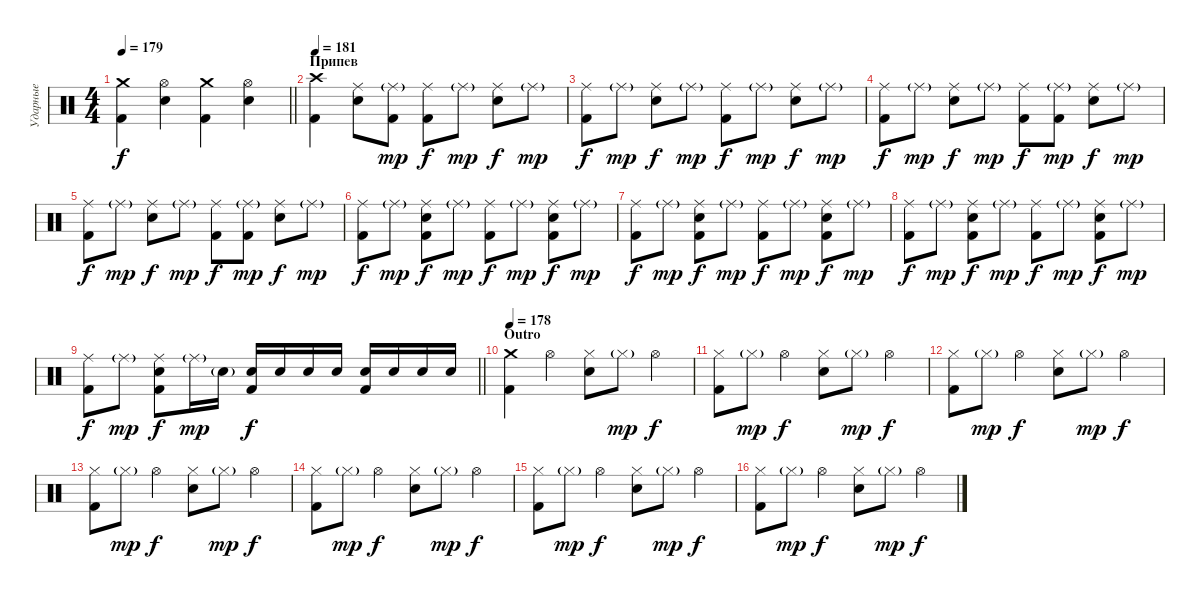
\track ("Ударные" "Ударные") {instrument percussion}
\staff {score}
\articulation defaults
\ts (4 4)
\tempo 179
\clef neutral
\barLineRight lightlight
\ks c
("Crash medium (hit)" "Kick (hit) 2").4{dy f} ("Hi-Hat (open)" "Electric Snare (hit)").4 ("Crash medium (hit)" "Kick (hit) 2").4 ("Hi-Hat (open)" "Electric Snare (hit)").4 |
\section ("" "Припев")
\tempo 181
("Crash high (hit)" "Kick (hit) 2").4 ("Ride (middle)" "Electric Snare (hit)").8 ("Ride (middle)"{g} "Kick (hit) 2").8{dy mp} ("Ride (middle)" "Kick (hit) 2").8{dy f} "Ride (middle)"{g}.8{dy mp} ("Ride (middle)" "Electric Snare (hit)").8{dy f} "Ride (middle)"{g}.8{dy mp} |
("Ride (middle)" "Kick (hit) 2").8{dy f} "Ride (middle)"{g}.8{dy mp} ("Ride (middle)" "Electric Snare (hit)").8{dy f} "Ride (middle)"{g}.8{dy mp} ("Ride (middle)" "Kick (hit) 2").8{dy f} "Ride (middle)"{g}.8{dy mp} ("Ride (middle)" "Electric Snare (hit)").8{dy f} "Ride (middle)"{g}.8{dy mp} |
("Ride (middle)" "Kick (hit) 2").8{dy f} "Ride (middle)"{g}.8{dy mp} ("Ride (middle)" "Electric Snare (hit)").8{dy f} "Ride (middle)"{g}.8{dy mp} ("Ride (middle)" "Kick (hit) 2").8{dy f} ("Ride (middle)"{g} "Kick (hit) 2").8{dy mp} ("Ride (middle)" "Electric Snare (hit)").8{dy f} "Ride (middle)"{g}.8{dy mp} |
("Ride (middle)" "Kick (hit) 2").8{dy f} "Ride (middle)"{g}.8{dy mp} ("Ride (middle)" "Electric Snare (hit)").8{dy f} "Ride (middle)"{g}.8{dy mp} ("Ride (middle)" "Kick (hit) 2").8{dy f} ("Ride (middle)"{g} "Kick (hit) 2").8{dy mp} ("Ride (middle)" "Electric Snare (hit)").8{dy f} "Ride (middle)"{g}.8{dy mp} |
("Ride (middle)" "Kick (hit) 2").8{dy f} "Ride (middle)"{g}.8{dy mp} ("Ride (middle)" "Electric Snare (hit)" "Kick (hit) 2").8{dy f} "Ride (middle)"{g}.8{dy mp} ("Ride (middle)" "Kick (hit) 2").8{dy f} "Ride (middle)"{g}.8{dy mp} ("Ride (middle)" "Electric Snare (hit)" "Kick (hit) 2").8{dy f} "Ride (middle)"{g}.8{dy mp} |
("Ride (middle)" "Kick (hit) 2").8{dy f} "Ride (middle)"{g}.8{dy mp} ("Ride (middle)" "Electric Snare (hit)" "Kick (hit) 2").8{dy f} "Ride (middle)"{g}.8{dy mp} ("Ride (middle)" "Kick (hit) 2").8{dy f} "Ride (middle)"{g}.8{dy mp} ("Ride (middle)" "Electric Snare (hit)" "Kick (hit) 2").8{dy f} "Ride (middle)"{g}.8{dy mp} |
("Ride (middle)" "Kick (hit) 2").8{dy f} "Ride (middle)"{g}.8{dy mp} ("Ride (middle)" "Electric Snare (hit)" "Kick (hit) 2").8{dy f} "Ride (middle)"{g}.8{dy mp} ("Ride (middle)" "Kick (hit) 2").8{dy f} "Ride (middle)"{g}.8{dy mp} ("Ride (middle)" "Electric Snare (hit)" "Kick (hit) 2").8{dy f} "Ride (middle)"{g}.8{dy mp} |
\barLineRight lightlight
("Ride (middle)" "Kick (hit) 2").8{dy f} "Ride (middle)"{g}.8{dy mp} ("Ride (middle)" "Electric Snare (hit)" "Kick (hit) 2").8{dy f} "Ride (middle)"{g}.16{dy mp} "Electric Snare (hit)"{g}.16 ("Electric Snare (hit)" "Kick (hit) 2").16{dy f} "Electric Snare (hit)".16 "Electric Snare (hit)".16 "Electric Snare (hit)".16 ("Electric Snare (hit)" "Kick (hit) 2").16 "Electric Snare (hit)".16 "Electric Snare (hit)".16 "Electric Snare (hit)".16 |
\section ("" "Outro")
\tempo 178
("Crash medium (hit)" "Kick (hit) 2").4 "Hi-Hat (open)".4 ("Hi-Hat (closed)" "Electric Snare (hit)").8 "Hi-Hat (closed)"{g}.8{dy mp} "Hi-Hat (open)".4{dy f} |
("Hi-Hat (closed)" "Kick (hit) 2").8 "Hi-Hat (closed)"{g}.8{dy mp} "Hi-Hat (open)".4{dy f} ("Hi-Hat (closed)" "Electric Snare (hit)").8 "Hi-Hat (closed)"{g}.8{dy mp} "Hi-Hat (open)".4{dy f} |
("Hi-Hat (closed)" "Kick (hit) 2").8 "Hi-Hat (closed)"{g}.8{dy mp} "Hi-Hat (open)".4{dy f} ("Hi-Hat (closed)" "Electric Snare (hit)").8 "Hi-Hat (closed)"{g}.8{dy mp} "Hi-Hat (open)".4{dy f} |
("Hi-Hat (closed)" "Kick (hit) 2").8 "Hi-Hat (closed)"{g}.8{dy mp} "Hi-Hat (open)".4{dy f} ("Hi-Hat (closed)" "Electric Snare (hit)").8 "Hi-Hat (closed)"{g}.8{dy mp} "Hi-Hat (open)".4{dy f} |
("Hi-Hat (closed)" "Kick (hit) 2").8 "Hi-Hat (closed)"{g}.8{dy mp} "Hi-Hat (open)".4{dy f} ("Hi-Hat (closed)" "Electric Snare (hit)").8 "Hi-Hat (closed)"{g}.8{dy mp} "Hi-Hat (open)".4{dy f} |
("Hi-Hat (closed)" "Kick (hit) 2").8 "Hi-Hat (closed)"{g}.8{dy mp} "Hi-Hat (open)".4{dy f} ("Hi-Hat (closed)" "Electric Snare (hit)").8 "Hi-Hat (closed)"{g}.8{dy mp} "Hi-Hat (open)".4{dy f} |
("Hi-Hat (closed)" "Kick (hit) 2").8 "Hi-Hat (closed)"{g}.8{dy mp} "Hi-Hat (open)".4{dy f} ("Hi-Hat (closed)" "Electric Snare (hit)").8 "Hi-Hat (closed)"{g}.8{dy mp} "Hi-Hat (open)".4{dy f}
